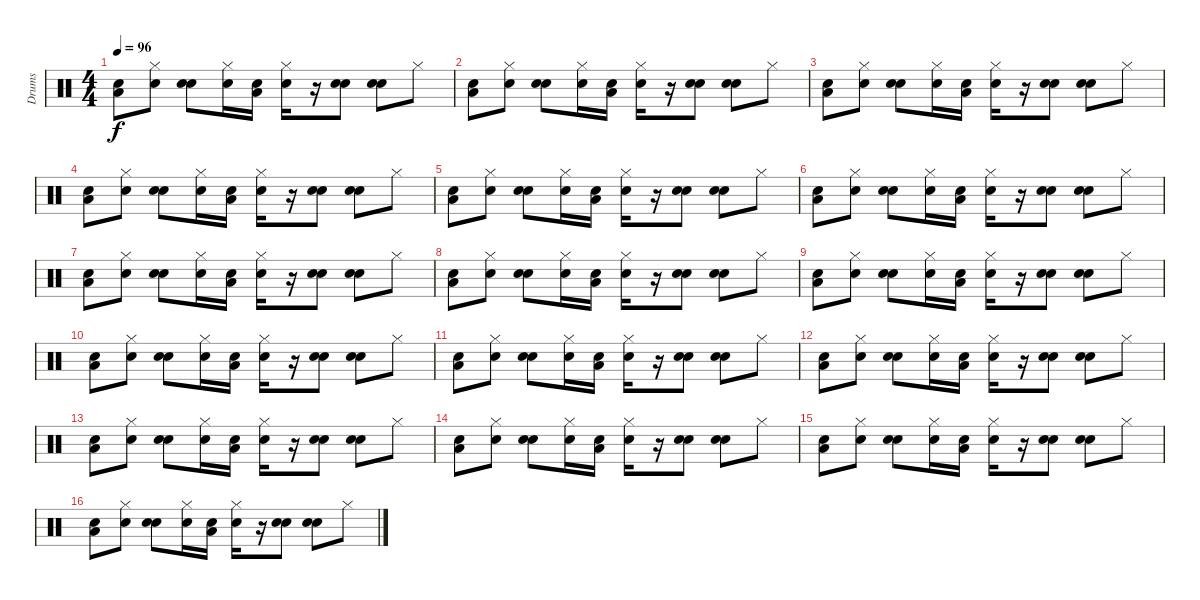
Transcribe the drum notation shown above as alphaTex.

\track ("Drums" "Drums") {instrument percussion}
\staff {score}
\articulation defaults
\ts (4 4)
\tempo 96
\clef neutral
\ks c
("Electric Snare (hit)" "Low Floor Tom (hit)").8{dy f} ("Electric Snare (hit)" "Hi-Hat (closed)").8 ("Snare (hit) 2" "Electric Snare (hit)").8 ("Electric Snare (hit)" "Hi-Hat (closed)").16 ("Electric Snare (hit)" "Low Floor Tom (hit)").16 ("Electric Snare (hit)" "Hi-Hat (closed)").16 r.16 ("Electric Snare (hit)" "Electric Snare (hit)").8 ("Snare (hit) 2" "Electric Snare (hit)").8 "Hi-Hat (closed)".8 |
("Electric Snare (hit)" "Low Floor Tom (hit)").8 ("Electric Snare (hit)" "Hi-Hat (closed)").8 ("Snare (hit) 2" "Electric Snare (hit)").8 ("Electric Snare (hit)" "Hi-Hat (closed)").16 ("Electric Snare (hit)" "Low Floor Tom (hit)").16 ("Electric Snare (hit)" "Hi-Hat (closed)").16 r.16 ("Electric Snare (hit)" "Electric Snare (hit)").8 ("Snare (hit) 2" "Electric Snare (hit)").8 "Hi-Hat (closed)".8 |
("Electric Snare (hit)" "Low Floor Tom (hit)").8 ("Electric Snare (hit)" "Hi-Hat (closed)").8 ("Snare (hit) 2" "Electric Snare (hit)").8 ("Electric Snare (hit)" "Hi-Hat (closed)").16 ("Electric Snare (hit)" "Low Floor Tom (hit)").16 ("Electric Snare (hit)" "Hi-Hat (closed)").16 r.16 ("Electric Snare (hit)" "Electric Snare (hit)").8 ("Snare (hit) 2" "Electric Snare (hit)").8 "Hi-Hat (closed)".8 |
("Electric Snare (hit)" "Low Floor Tom (hit)").8 ("Electric Snare (hit)" "Hi-Hat (closed)").8 ("Snare (hit) 2" "Electric Snare (hit)").8 ("Electric Snare (hit)" "Hi-Hat (closed)").16 ("Electric Snare (hit)" "Low Floor Tom (hit)").16 ("Electric Snare (hit)" "Hi-Hat (closed)").16 r.16 ("Electric Snare (hit)" "Electric Snare (hit)").8 ("Snare (hit) 2" "Electric Snare (hit)").8 "Hi-Hat (closed)".8 |
("Electric Snare (hit)" "Low Floor Tom (hit)").8 ("Electric Snare (hit)" "Hi-Hat (closed)").8 ("Snare (hit) 2" "Electric Snare (hit)").8 ("Electric Snare (hit)" "Hi-Hat (closed)").16 ("Electric Snare (hit)" "Low Floor Tom (hit)").16 ("Electric Snare (hit)" "Hi-Hat (closed)").16 r.16 ("Electric Snare (hit)" "Electric Snare (hit)").8 ("Snare (hit) 2" "Electric Snare (hit)").8 "Hi-Hat (closed)".8 |
("Electric Snare (hit)" "Low Floor Tom (hit)").8 ("Electric Snare (hit)" "Hi-Hat (closed)").8 ("Snare (hit) 2" "Electric Snare (hit)").8 ("Electric Snare (hit)" "Hi-Hat (closed)").16 ("Electric Snare (hit)" "Low Floor Tom (hit)").16 ("Electric Snare (hit)" "Hi-Hat (closed)").16 r.16 ("Electric Snare (hit)" "Electric Snare (hit)").8 ("Snare (hit) 2" "Electric Snare (hit)").8 "Hi-Hat (closed)".8 |
("Electric Snare (hit)" "Low Floor Tom (hit)").8 ("Electric Snare (hit)" "Hi-Hat (closed)").8 ("Snare (hit) 2" "Electric Snare (hit)").8 ("Electric Snare (hit)" "Hi-Hat (closed)").16 ("Electric Snare (hit)" "Low Floor Tom (hit)").16 ("Electric Snare (hit)" "Hi-Hat (closed)").16 r.16 ("Electric Snare (hit)" "Electric Snare (hit)").8 ("Snare (hit) 2" "Electric Snare (hit)").8 "Hi-Hat (closed)".8 |
("Electric Snare (hit)" "Low Floor Tom (hit)").8 ("Electric Snare (hit)" "Hi-Hat (closed)").8 ("Snare (hit) 2" "Electric Snare (hit)").8 ("Electric Snare (hit)" "Hi-Hat (closed)").16 ("Electric Snare (hit)" "Low Floor Tom (hit)").16 ("Electric Snare (hit)" "Hi-Hat (closed)").16 r.16 ("Electric Snare (hit)" "Electric Snare (hit)").8 ("Snare (hit) 2" "Electric Snare (hit)").8 "Hi-Hat (closed)".8 |
("Electric Snare (hit)" "Low Floor Tom (hit)").8 ("Electric Snare (hit)" "Hi-Hat (closed)").8 ("Snare (hit) 2" "Electric Snare (hit)").8 ("Electric Snare (hit)" "Hi-Hat (closed)").16 ("Electric Snare (hit)" "Low Floor Tom (hit)").16 ("Electric Snare (hit)" "Hi-Hat (closed)").16 r.16 ("Electric Snare (hit)" "Electric Snare (hit)").8 ("Snare (hit) 2" "Electric Snare (hit)").8 "Hi-Hat (closed)".8 |
("Electric Snare (hit)" "Low Floor Tom (hit)").8 ("Electric Snare (hit)" "Hi-Hat (closed)").8 ("Snare (hit) 2" "Electric Snare (hit)").8 ("Electric Snare (hit)" "Hi-Hat (closed)").16 ("Electric Snare (hit)" "Low Floor Tom (hit)").16 ("Electric Snare (hit)" "Hi-Hat (closed)").16 r.16 ("Electric Snare (hit)" "Electric Snare (hit)").8 ("Snare (hit) 2" "Electric Snare (hit)").8 "Hi-Hat (closed)".8 |
("Electric Snare (hit)" "Low Floor Tom (hit)").8 ("Electric Snare (hit)" "Hi-Hat (closed)").8 ("Snare (hit) 2" "Electric Snare (hit)").8 ("Electric Snare (hit)" "Hi-Hat (closed)").16 ("Electric Snare (hit)" "Low Floor Tom (hit)").16 ("Electric Snare (hit)" "Hi-Hat (closed)").16 r.16 ("Electric Snare (hit)" "Electric Snare (hit)").8 ("Snare (hit) 2" "Electric Snare (hit)").8 "Hi-Hat (closed)".8 |
("Electric Snare (hit)" "Low Floor Tom (hit)").8 ("Electric Snare (hit)" "Hi-Hat (closed)").8 ("Snare (hit) 2" "Electric Snare (hit)").8 ("Electric Snare (hit)" "Hi-Hat (closed)").16 ("Electric Snare (hit)" "Low Floor Tom (hit)").16 ("Electric Snare (hit)" "Hi-Hat (closed)").16 r.16 ("Electric Snare (hit)" "Electric Snare (hit)").8 ("Snare (hit) 2" "Electric Snare (hit)").8 "Hi-Hat (closed)".8 |
("Electric Snare (hit)" "Low Floor Tom (hit)").8 ("Electric Snare (hit)" "Hi-Hat (closed)").8 ("Snare (hit) 2" "Electric Snare (hit)").8 ("Electric Snare (hit)" "Hi-Hat (closed)").16 ("Electric Snare (hit)" "Low Floor Tom (hit)").16 ("Electric Snare (hit)" "Hi-Hat (closed)").16 r.16 ("Electric Snare (hit)" "Electric Snare (hit)").8 ("Snare (hit) 2" "Electric Snare (hit)").8 "Hi-Hat (closed)".8 |
("Electric Snare (hit)" "Low Floor Tom (hit)").8 ("Electric Snare (hit)" "Hi-Hat (closed)").8 ("Snare (hit) 2" "Electric Snare (hit)").8 ("Electric Snare (hit)" "Hi-Hat (closed)").16 ("Electric Snare (hit)" "Low Floor Tom (hit)").16 ("Electric Snare (hit)" "Hi-Hat (closed)").16 r.16 ("Electric Snare (hit)" "Electric Snare (hit)").8 ("Snare (hit) 2" "Electric Snare (hit)").8 "Hi-Hat (closed)".8 |
("Electric Snare (hit)" "Low Floor Tom (hit)").8 ("Electric Snare (hit)" "Hi-Hat (closed)").8 ("Snare (hit) 2" "Electric Snare (hit)").8 ("Electric Snare (hit)" "Hi-Hat (closed)").16 ("Electric Snare (hit)" "Low Floor Tom (hit)").16 ("Electric Snare (hit)" "Hi-Hat (closed)").16 r.16 ("Electric Snare (hit)" "Electric Snare (hit)").8 ("Snare (hit) 2" "Electric Snare (hit)").8 "Hi-Hat (closed)".8 |
("Electric Snare (hit)" "Low Floor Tom (hit)").8 ("Electric Snare (hit)" "Hi-Hat (closed)").8 ("Snare (hit) 2" "Electric Snare (hit)").8 ("Electric Snare (hit)" "Hi-Hat (closed)").16 ("Electric Snare (hit)" "Low Floor Tom (hit)").16 ("Electric Snare (hit)" "Hi-Hat (closed)").16 r.16 ("Electric Snare (hit)" "Electric Snare (hit)").8 ("Snare (hit) 2" "Electric Snare (hit)").8 "Hi-Hat (closed)".8
